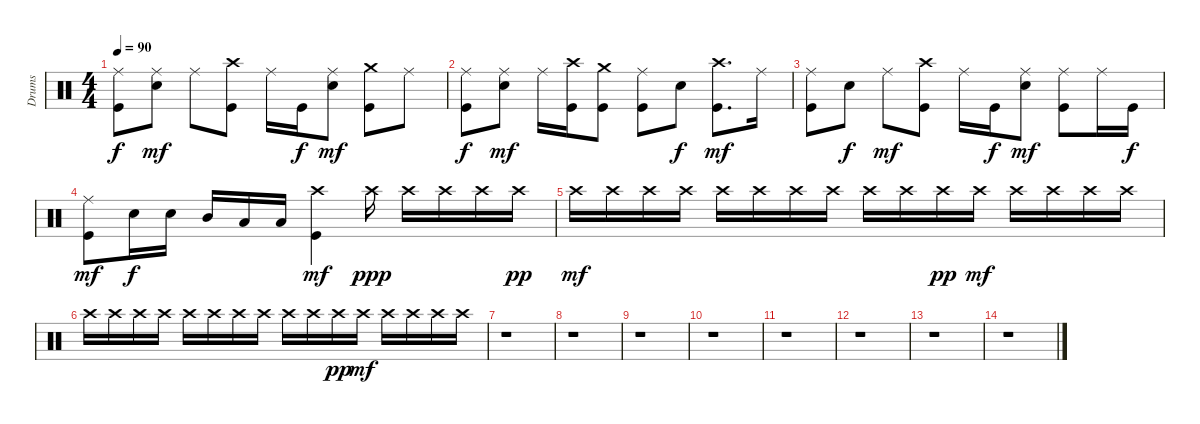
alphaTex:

\track ("Drums" "Drums") {instrument percussion}
\staff {score}
\articulation defaults
\ts (4 4)
\tempo 90
\clef neutral
\ks c
("Ride (middle)" "Kick (hit)").8{dy f} ("Ride (middle)" "Snare (hit) 2").8{dy mf} "Ride (middle)".8 ("Crash high (hit)" "Kick (hit)").8 "Ride (middle)".16 "Kick (hit)".16{dy f} ("Ride (middle)" "Snare (hit) 2").8{dy mf} ("Crash medium (hit)" "Kick (hit)").8 "Ride (middle)".8 |
("Ride (middle)" "Kick (hit)").8{dy f} ("Ride (middle)" "Snare (hit) 2").8{dy mf} "Ride (middle)".16 ("Crash high (hit)" "Kick (hit)").16 ("Crash medium (hit)" "Kick (hit)").8 ("Ride (middle)" "Kick (hit)").8 "Snare (hit) 2".8{dy f} ("Crash high (hit)" "Kick (hit)").8{d dy mf} "Ride (middle)".16 |
("Ride (middle)" "Kick (hit)").8 "Snare (hit) 2".8{dy f} "Ride (middle)".8{dy mf} ("Crash high (hit)" "Kick (hit)").8 "Ride (middle)".16 "Kick (hit)".16{dy f} ("Ride (middle)" "Snare (hit) 2").8{dy mf} ("Ride (middle)" "Kick (hit)").8 "Ride (middle)".16 "Kick (hit)".16{dy f} |
("Ride (middle)" "Kick (hit)").8{dy mf} "Snare (hit) 2".16{dy f} "Snare (hit) 2".16 "Mid Tom (hit)".16 "Low Tom (hit)".16 "Low Tom (hit)".16 ("Crash high (hit)" "Kick (hit)").4{dy mf} "Crash high (hit)".16{dy ppp} "Crash high (hit)".16 "Crash high (hit)".16 "Crash high (hit)".16 "Crash high (hit)".16{dy pp} |
"Crash high (hit)".16{dy mf} "Crash high (hit)".16 "Crash high (hit)".16 "Crash high (hit)".16 "Crash high (hit)".16 "Crash high (hit)".16 "Crash high (hit)".16 "Crash high (hit)".16 "Crash high (hit)".16 "Crash high (hit)".16 "Crash high (hit)".16{dy pp} "Crash high (hit)".16{dy mf} "Crash high (hit)".16 "Crash high (hit)".16 "Crash high (hit)".16 "Crash high (hit)".16 |
"Crash high (hit)".16 "Crash high (hit)".16 "Crash high (hit)".16 "Crash high (hit)".16 "Crash high (hit)".16 "Crash high (hit)".16 "Crash high (hit)".16 "Crash high (hit)".16 "Crash high (hit)".16 "Crash high (hit)".16 "Crash high (hit)".16{dy pp} "Crash high (hit)".16{dy mf} "Crash high (hit)".16 "Crash high (hit)".16 "Crash high (hit)".16 "Crash high (hit)".16 |
r.1 |
r.1 |
r.1 |
r.1 |
r.1 |
r.1 |
r.1 |
r.1
